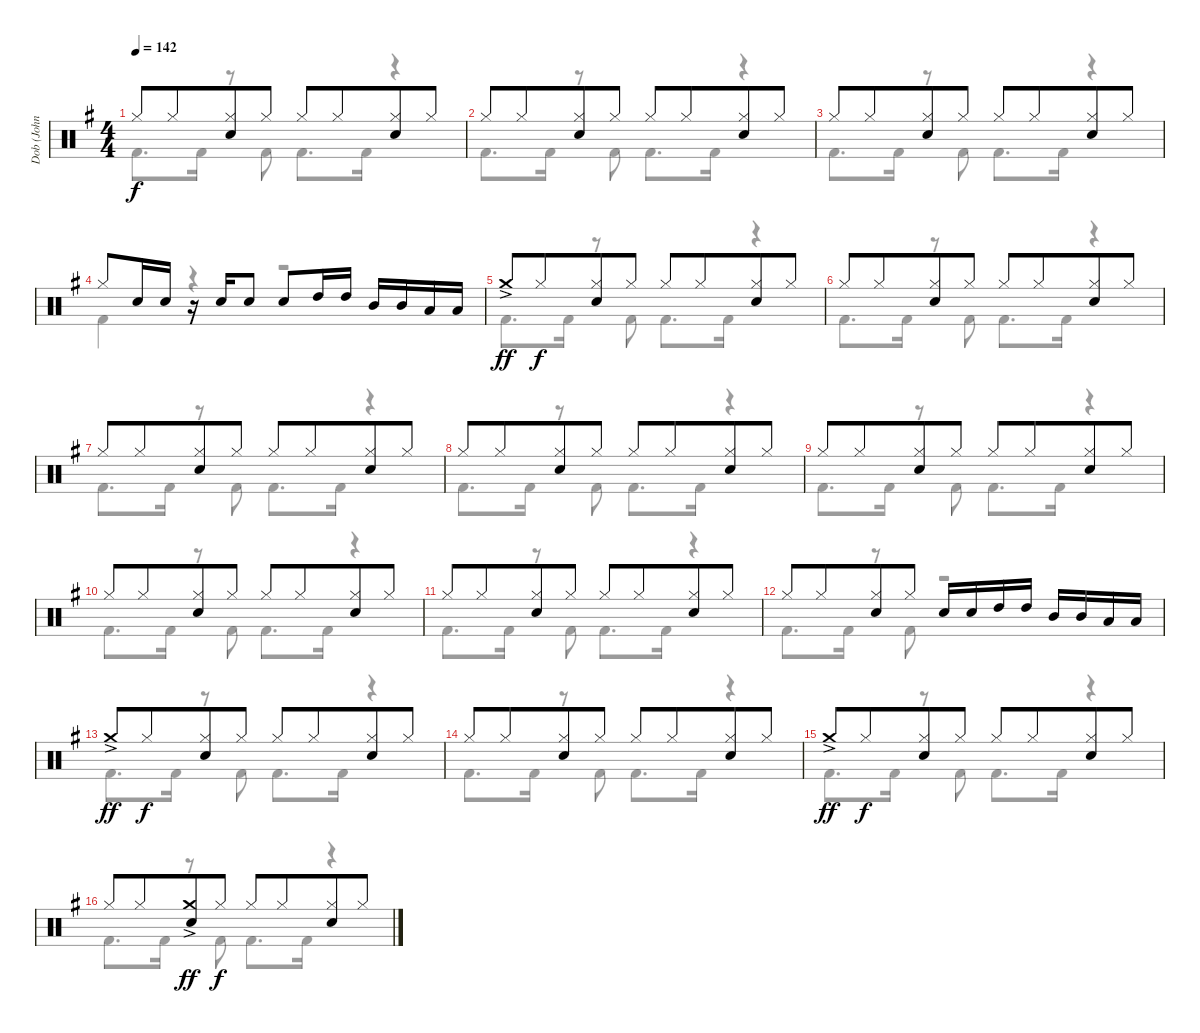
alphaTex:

\track ("Dob (John O'Reilly)" "Dob (John ") {instrument percussion}
\staff {score}
\articulation defaults
\voice
\ts (4 4)
\tempo 142
\clef neutral
\ks g "Hi-Hat (closed)".8{dy f} "Hi-Hat (closed)".8{beam merge}
("Hi-Hat (closed)" "Electric Snare (hit)").8 "Hi-Hat (closed)".8 "Hi-Hat (closed)".8 "Hi-Hat (closed)".8{beam merge} ("Hi-Hat (closed)" "Electric Snare (hit)").8 "Hi-Hat (closed)".8 |
"Hi-Hat (closed)".8 "Hi-Hat (closed)".8{beam merge} ("Hi-Hat (closed)" "Electric Snare (hit)").8 "Hi-Hat (closed)".8 "Hi-Hat (closed)".8 "Hi-Hat (closed)".8{beam merge} ("Hi-Hat (closed)" "Electric Snare (hit)").8 "Hi-Hat (closed)".8 |
"Hi-Hat (closed)".8 "Hi-Hat (closed)".8{beam merge} ("Hi-Hat (closed)" "Electric Snare (hit)").8 "Hi-Hat (closed)".8 "Hi-Hat (closed)".8 "Hi-Hat (closed)".8{beam merge} ("Hi-Hat (closed)" "Electric Snare (hit)").8 "Hi-Hat (closed)".8 |
"Hi-Hat (closed)".8 "Electric Snare (hit)".16 "Electric Snare (hit)".16 r.16 "Electric Snare (hit)".16 "Electric Snare (hit)".8 "Electric Snare (hit)".8 "High Tom (hit)".16 "High Tom (hit)".16 "Mid Tom (hit)".16 "Mid Tom (hit)".16 "Low Tom (hit)".16 "Low Tom (hit)".16 |
"Crash medium (hit)"{ac}.8{dy ff} "Hi-Hat (closed)".8{dy f beam merge} ("Hi-Hat (closed)" "Electric Snare (hit)").8 "Hi-Hat (closed)".8 "Hi-Hat (closed)".8 "Hi-Hat (closed)".8{beam merge} ("Hi-Hat (closed)" "Electric Snare (hit)").8 "Hi-Hat (closed)".8 |
"Hi-Hat (closed)".8 "Hi-Hat (closed)".8{beam merge} ("Hi-Hat (closed)" "Electric Snare (hit)").8 "Hi-Hat (closed)".8 "Hi-Hat (closed)".8 "Hi-Hat (closed)".8{beam merge} ("Hi-Hat (closed)" "Electric Snare (hit)").8 "Hi-Hat (closed)".8 |
"Hi-Hat (closed)".8 "Hi-Hat (closed)".8{beam merge} ("Hi-Hat (closed)" "Electric Snare (hit)").8 "Hi-Hat (closed)".8 "Hi-Hat (closed)".8 "Hi-Hat (closed)".8{beam merge} ("Hi-Hat (closed)" "Electric Snare (hit)").8 "Hi-Hat (closed)".8 |
"Hi-Hat (closed)".8 "Hi-Hat (closed)".8{beam merge} ("Hi-Hat (closed)" "Electric Snare (hit)").8 "Hi-Hat (closed)".8 "Hi-Hat (closed)".8 "Hi-Hat (closed)".8{beam merge} ("Hi-Hat (closed)" "Electric Snare (hit)").8 "Hi-Hat (closed)".8 |
"Hi-Hat (closed)".8 "Hi-Hat (closed)".8{beam merge} ("Hi-Hat (closed)" "Electric Snare (hit)").8 "Hi-Hat (closed)".8 "Hi-Hat (closed)".8 "Hi-Hat (closed)".8{beam merge} ("Hi-Hat (closed)" "Electric Snare (hit)").8 "Hi-Hat (closed)".8 |
"Hi-Hat (closed)".8 "Hi-Hat (closed)".8{beam merge} ("Hi-Hat (closed)" "Electric Snare (hit)").8 "Hi-Hat (closed)".8 "Hi-Hat (closed)".8 "Hi-Hat (closed)".8{beam merge} ("Hi-Hat (closed)" "Electric Snare (hit)").8 "Hi-Hat (closed)".8 |
"Hi-Hat (closed)".8 "Hi-Hat (closed)".8{beam merge} ("Hi-Hat (closed)" "Electric Snare (hit)").8 "Hi-Hat (closed)".8 "Hi-Hat (closed)".8 "Hi-Hat (closed)".8{beam merge} ("Hi-Hat (closed)" "Electric Snare (hit)").8 "Hi-Hat (closed)".8 |
"Hi-Hat (closed)".8 "Hi-Hat (closed)".8{beam merge} ("Hi-Hat (closed)" "Electric Snare (hit)").8 "Hi-Hat (closed)".8 "Electric Snare (hit)".16 "Electric Snare (hit)".16 "High Tom (hit)".16 "High Tom (hit)".16 "Mid Tom (hit)".16 "Mid Tom (hit)".16 "Low Tom (hit)".16 "Low Tom (hit)".16 |
"Crash medium (hit)"{ac}.8{dy ff} "Hi-Hat (closed)".8{dy f beam merge} ("Hi-Hat (closed)" "Electric Snare (hit)").8 "Hi-Hat (closed)".8 "Hi-Hat (closed)".8 "Hi-Hat (closed)".8{beam merge} ("Hi-Hat (closed)" "Electric Snare (hit)").8 "Hi-Hat (closed)".8 |
"Hi-Hat (closed)".8 "Hi-Hat (closed)".8{beam merge} ("Hi-Hat (closed)" "Electric Snare (hit)").8 "Hi-Hat (closed)".8 "Hi-Hat (closed)".8 "Hi-Hat (closed)".8{beam merge} ("Hi-Hat (closed)" "Electric Snare (hit)").8 "Hi-Hat (closed)".8 |
"Crash medium (hit)"{ac}.8{dy ff} "Hi-Hat (closed)".8{dy f beam merge} ("Hi-Hat (closed)" "Electric Snare (hit)").8 "Hi-Hat (closed)".8 "Hi-Hat (closed)".8 "Hi-Hat (closed)".8{beam merge} ("Hi-Hat (closed)" "Electric Snare (hit)").8 "Hi-Hat (closed)".8 |
"Hi-Hat (closed)".8 "Hi-Hat (closed)".8{beam merge} ("Crash medium (hit)"{ac} "Electric Snare (hit)").8{dy ff} "Hi-Hat (closed)".8{dy f} "Hi-Hat (closed)".8 "Hi-Hat (closed)".8{beam merge} ("Hi-Hat (closed)" "Electric Snare (hit)").8 "Hi-Hat (closed)".8
\voice
\clef neutral
\ottava regular
\simile none
\ks g "Kick (hit) 2".8{d dy f} "Kick (hit) 2".16
r.8 "Kick (hit) 2".8 "Kick (hit) 2".8{d} "Kick (hit) 2".16 r.4 |
"Kick (hit) 2".8{d} "Kick (hit) 2".16 r.8 "Kick (hit) 2".8 "Kick (hit) 2".8{d} "Kick (hit) 2".16 r.4 |
"Kick (hit) 2".8{d} "Kick (hit) 2".16 r.8 "Kick (hit) 2".8 "Kick (hit) 2".8{d} "Kick (hit) 2".16 r.4 |
"Kick (hit) 2".4 r.4 r.2 |
"Kick (hit) 2".8{d} "Kick (hit) 2".16 r.8 "Kick (hit) 2".8 "Kick (hit) 2".8{d} "Kick (hit) 2".16 r.4 |
"Kick (hit) 2".8{d} "Kick (hit) 2".16 r.8 "Kick (hit) 2".8 "Kick (hit) 2".8{d} "Kick (hit) 2".16 r.4 |
"Kick (hit) 2".8{d} "Kick (hit) 2".16 r.8 "Kick (hit) 2".8 "Kick (hit) 2".8{d} "Kick (hit) 2".16 r.4 |
"Kick (hit) 2".8{d} "Kick (hit) 2".16 r.8 "Kick (hit) 2".8 "Kick (hit) 2".8{d} "Kick (hit) 2".16 r.4 |
"Kick (hit) 2".8{d} "Kick (hit) 2".16 r.8 "Kick (hit) 2".8 "Kick (hit) 2".8{d} "Kick (hit) 2".16 r.4 |
"Kick (hit) 2".8{d} "Kick (hit) 2".16 r.8 "Kick (hit) 2".8 "Kick (hit) 2".8{d} "Kick (hit) 2".16 r.4 |
"Kick (hit) 2".8{d} "Kick (hit) 2".16 r.8 "Kick (hit) 2".8 "Kick (hit) 2".8{d} "Kick (hit) 2".16 r.4 |
"Kick (hit) 2".8{d} "Kick (hit) 2".16 r.8 "Kick (hit) 2".8 r.2 |
"Kick (hit) 2".8{d} "Kick (hit) 2".16 r.8 "Kick (hit) 2".8 "Kick (hit) 2".8{d} "Kick (hit) 2".16 r.4 |
"Kick (hit) 2".8{d} "Kick (hit) 2".16 r.8 "Kick (hit) 2".8 "Kick (hit) 2".8{d} "Kick (hit) 2".16 r.4 |
"Kick (hit) 2".8{d} "Kick (hit) 2".16 r.8 "Kick (hit) 2".8 "Kick (hit) 2".8{d} "Kick (hit) 2".16 r.4 |
"Kick (hit) 2".8{d} "Kick (hit) 2".16 r.8 "Kick (hit) 2".8 "Kick (hit) 2".8{d} "Kick (hit) 2".16 r.4
